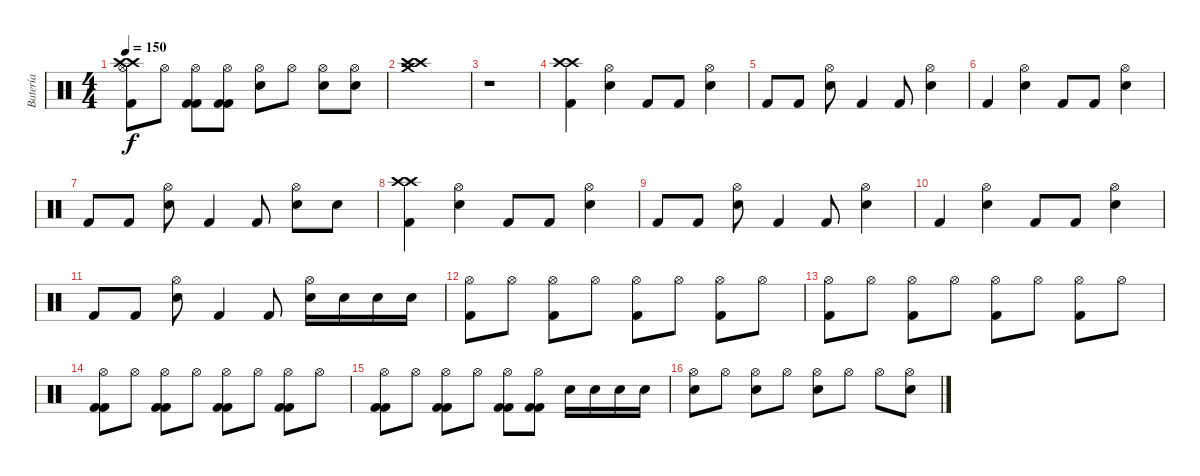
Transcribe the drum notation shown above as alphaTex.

\track ("Batería" "Batería") {instrument percussion}
\staff {score}
\articulation defaults
\ts (4 4)
\tempo 150
\clef neutral
\ks c
("Crash high (hit)" "Crash high (hit)" "Kick (hit) 2" "Hi-Hat (open)").8{dy f} "Hi-Hat (open)".8 ("Kick (hit) 2" "Kick (hit) 2" "Hi-Hat (open)").8 ("Kick (hit) 2" "Kick (hit) 2" "Hi-Hat (open)").8 ("Snare (hit) 2" "Hi-Hat (open)").8 "Hi-Hat (open)".8 ("Snare (hit) 2" "Hi-Hat (open)").8 ("Snare (hit) 2" "Hi-Hat (open)").8 |
("Crash high (hit)" "Crash high (hit)" "Crash medium (hit)").1 |
r.1 |
("Crash high (hit)" "Crash high (hit)" "Kick (hit) 2").4 ("Snare (hit) 2" "Hi-Hat (open)").4 "Kick (hit) 2".8 "Kick (hit) 2".8 ("Snare (hit) 2" "Hi-Hat (open)").4 |
"Kick (hit) 2".8 "Kick (hit) 2".8 ("Snare (hit) 2" "Hi-Hat (open)").8 "Kick (hit) 2".4 "Kick (hit) 2".8 ("Snare (hit) 2" "Hi-Hat (open)").4 |
"Kick (hit) 2".4 ("Snare (hit) 2" "Hi-Hat (open)").4 "Kick (hit) 2".8 "Kick (hit) 2".8 ("Snare (hit) 2" "Hi-Hat (open)").4 |
"Kick (hit) 2".8 "Kick (hit) 2".8 ("Snare (hit) 2" "Hi-Hat (open)").8 "Kick (hit) 2".4 "Kick (hit) 2".8 ("Snare (hit) 2" "Hi-Hat (open)").8 "Snare (hit) 2".8 |
("Crash high (hit)" "Crash high (hit)" "Kick (hit) 2").4 ("Snare (hit) 2" "Hi-Hat (open)").4 "Kick (hit) 2".8 "Kick (hit) 2".8 ("Snare (hit) 2" "Hi-Hat (open)").4 |
"Kick (hit) 2".8 "Kick (hit) 2".8 ("Snare (hit) 2" "Hi-Hat (open)").8 "Kick (hit) 2".4 "Kick (hit) 2".8 ("Snare (hit) 2" "Hi-Hat (open)").4 |
"Kick (hit) 2".4 ("Snare (hit) 2" "Hi-Hat (open)").4 "Kick (hit) 2".8 "Kick (hit) 2".8 ("Snare (hit) 2" "Hi-Hat (open)").4 |
"Kick (hit) 2".8 "Kick (hit) 2".8 ("Snare (hit) 2" "Hi-Hat (open)").8 "Kick (hit) 2".4 "Kick (hit) 2".8 ("Snare (hit) 2" "Hi-Hat (open)").16 "Snare (hit) 2".16 "Snare (hit) 2".16 "Snare (hit) 2".16 |
("Kick (hit) 2" "Hi-Hat (open)").8 "Hi-Hat (open)".8 ("Kick (hit) 2" "Hi-Hat (open)").8 "Hi-Hat (open)".8 ("Kick (hit) 2" "Hi-Hat (open)").8 "Hi-Hat (open)".8 ("Kick (hit) 2" "Hi-Hat (open)").8 "Hi-Hat (open)".8 |
("Kick (hit) 2" "Hi-Hat (open)").8 "Hi-Hat (open)".8 ("Kick (hit) 2" "Hi-Hat (open)").8 "Hi-Hat (open)".8 ("Kick (hit) 2" "Hi-Hat (open)").8 "Hi-Hat (open)".8 ("Kick (hit) 2" "Hi-Hat (open)").8 "Hi-Hat (open)".8 |
("Kick (hit) 2" "Kick (hit) 2" "Hi-Hat (open)").8 "Hi-Hat (open)".8 ("Kick (hit) 2" "Kick (hit) 2" "Hi-Hat (open)").8 "Hi-Hat (open)".8 ("Kick (hit) 2" "Kick (hit) 2" "Hi-Hat (open)").8 "Hi-Hat (open)".8 ("Kick (hit) 2" "Kick (hit) 2" "Hi-Hat (open)").8 "Hi-Hat (open)".8 |
("Kick (hit) 2" "Kick (hit) 2" "Hi-Hat (open)").8 "Hi-Hat (open)".8 ("Kick (hit) 2" "Kick (hit) 2" "Hi-Hat (open)").8 "Hi-Hat (open)".8 ("Kick (hit) 2" "Kick (hit) 2" "Hi-Hat (open)").8 ("Kick (hit) 2" "Kick (hit) 2" "Hi-Hat (open)").8 "Snare (hit) 2".16 "Snare (hit) 2".16 "Snare (hit) 2".16 "Snare (hit) 2".16 |
("Snare (hit) 2" "Hi-Hat (open)").8 "Hi-Hat (open)".8 ("Snare (hit) 2" "Hi-Hat (open)").8 "Hi-Hat (open)".8 ("Snare (hit) 2" "Hi-Hat (open)").8 "Hi-Hat (open)".8 "Hi-Hat (open)".8 ("Snare (hit) 2" "Hi-Hat (open)").8
